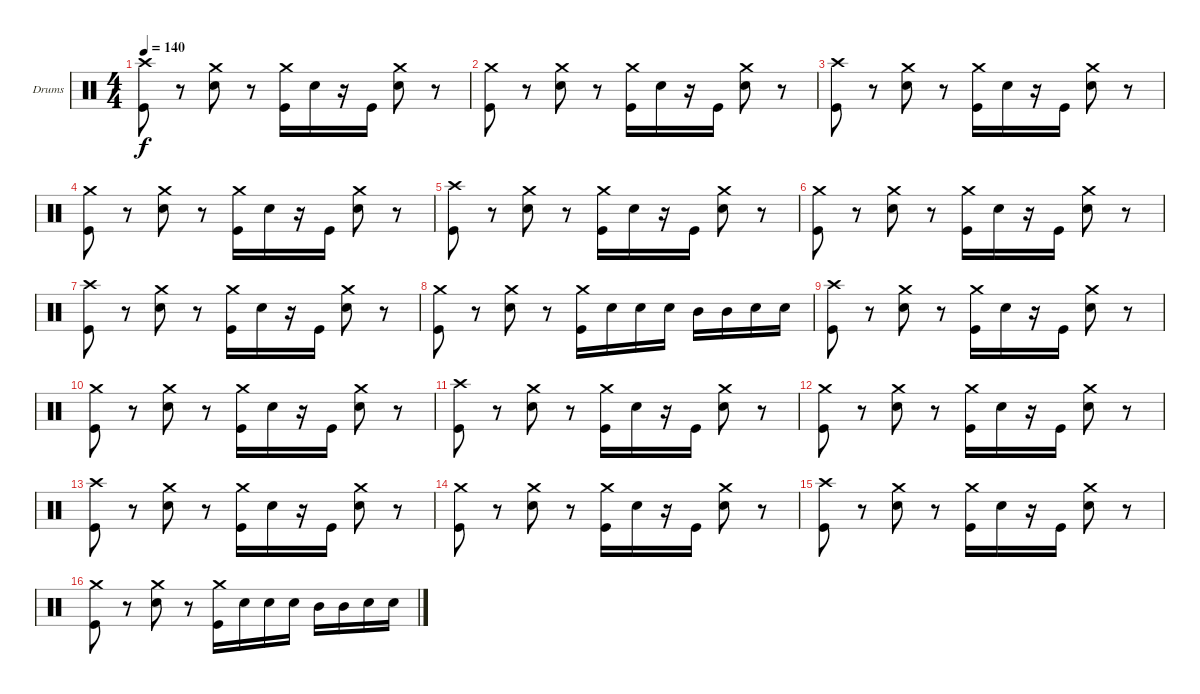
\defaultSystemsLayout 4
\bracketExtendMode groupsimilarinstruments
\firstSystemTrackNameOrientation horizontal
\otherSystemsTrackNameOrientation horizontal
\track ("Drumkit" "Drums") {instrument percussion}
\staff {score}
\articulation defaults
\ts (4 4)
\tempo 140
\clef neutral
\ks c
("Kick (hit)" "Crash high (hit)").8{dy f} r.8 ("Snare (hit) 2" "Crash medium (hit)").8 r.8 ("Kick (hit)" "Crash medium (hit)").16 "Snare (hit) 2".16 r.16 "Kick (hit)".16 ("Snare (hit) 2" "Crash medium (hit)").8 r.8 |
("Kick (hit)" "Crash medium (hit)").8 r.8 ("Snare (hit) 2" "Crash medium (hit)").8 r.8 ("Kick (hit)" "Crash medium (hit)").16 "Snare (hit) 2".16 r.16 "Kick (hit)".16 ("Snare (hit) 2" "Crash medium (hit)").8 r.8 |
("Kick (hit)" "Crash high (hit)").8 r.8 ("Snare (hit) 2" "Crash medium (hit)").8 r.8 ("Kick (hit)" "Crash medium (hit)").16 "Snare (hit) 2".16 r.16 "Kick (hit)".16 ("Snare (hit) 2" "Crash medium (hit)").8 r.8 |
("Kick (hit)" "Crash medium (hit)").8 r.8 ("Snare (hit) 2" "Crash medium (hit)").8 r.8 ("Kick (hit)" "Crash medium (hit)").16 "Snare (hit) 2".16 r.16 "Kick (hit)".16 ("Snare (hit) 2" "Crash medium (hit)").8 r.8 |
("Kick (hit)" "Crash high (hit)").8 r.8 ("Snare (hit) 2" "Crash medium (hit)").8 r.8 ("Kick (hit)" "Crash medium (hit)").16 "Snare (hit) 2".16 r.16 "Kick (hit)".16 ("Snare (hit) 2" "Crash medium (hit)").8 r.8 |
("Kick (hit)" "Crash medium (hit)").8 r.8 ("Snare (hit) 2" "Crash medium (hit)").8 r.8 ("Kick (hit)" "Crash medium (hit)").16 "Snare (hit) 2".16 r.16 "Kick (hit)".16 ("Snare (hit) 2" "Crash medium (hit)").8 r.8 |
("Kick (hit)" "Crash high (hit)").8 r.8 ("Snare (hit) 2" "Crash medium (hit)").8 r.8 ("Kick (hit)" "Crash medium (hit)").16 "Snare (hit) 2".16 r.16 "Kick (hit)".16 ("Snare (hit) 2" "Crash medium (hit)").8 r.8 |
("Kick (hit)" "Crash medium (hit)").8 r.8 ("Snare (hit) 2" "Crash medium (hit)").8 r.8 ("Kick (hit)" "Crash medium (hit)").16 "Snare (hit) 2".16 "Snare (hit) 2".16 "Snare (hit) 2".16 "Mid Tom (hit)".16 "Mid Tom (hit)".16 "Snare (hit) 2".16 "Snare (hit) 2".16 |
("Kick (hit)" "Crash high (hit)").8 r.8 ("Snare (hit) 2" "Crash medium (hit)").8 r.8 ("Kick (hit)" "Crash medium (hit)").16 "Snare (hit) 2".16 r.16 "Kick (hit)".16 ("Snare (hit) 2" "Crash medium (hit)").8 r.8 |
("Kick (hit)" "Crash medium (hit)").8 r.8 ("Snare (hit) 2" "Crash medium (hit)").8 r.8 ("Kick (hit)" "Crash medium (hit)").16 "Snare (hit) 2".16 r.16 "Kick (hit)".16 ("Snare (hit) 2" "Crash medium (hit)").8 r.8 |
("Kick (hit)" "Crash high (hit)").8 r.8 ("Snare (hit) 2" "Crash medium (hit)").8 r.8 ("Kick (hit)" "Crash medium (hit)").16 "Snare (hit) 2".16 r.16 "Kick (hit)".16 ("Snare (hit) 2" "Crash medium (hit)").8 r.8 |
("Kick (hit)" "Crash medium (hit)").8 r.8 ("Snare (hit) 2" "Crash medium (hit)").8 r.8 ("Kick (hit)" "Crash medium (hit)").16 "Snare (hit) 2".16 r.16 "Kick (hit)".16 ("Snare (hit) 2" "Crash medium (hit)").8 r.8 |
("Kick (hit)" "Crash high (hit)").8 r.8 ("Snare (hit) 2" "Crash medium (hit)").8 r.8 ("Kick (hit)" "Crash medium (hit)").16 "Snare (hit) 2".16 r.16 "Kick (hit)".16 ("Snare (hit) 2" "Crash medium (hit)").8 r.8 |
("Kick (hit)" "Crash medium (hit)").8 r.8 ("Snare (hit) 2" "Crash medium (hit)").8 r.8 ("Kick (hit)" "Crash medium (hit)").16 "Snare (hit) 2".16 r.16 "Kick (hit)".16 ("Snare (hit) 2" "Crash medium (hit)").8 r.8 |
("Kick (hit)" "Crash high (hit)").8 r.8 ("Snare (hit) 2" "Crash medium (hit)").8 r.8 ("Kick (hit)" "Crash medium (hit)").16 "Snare (hit) 2".16 r.16 "Kick (hit)".16 ("Snare (hit) 2" "Crash medium (hit)").8 r.8 |
("Kick (hit)" "Crash medium (hit)").8 r.8 ("Snare (hit) 2" "Crash medium (hit)").8 r.8 ("Kick (hit)" "Crash medium (hit)").16 "Snare (hit) 2".16 "Snare (hit) 2".16 "Snare (hit) 2".16 "Mid Tom (hit)".16 "Mid Tom (hit)".16 "Snare (hit) 2".16 "Snare (hit) 2".16
